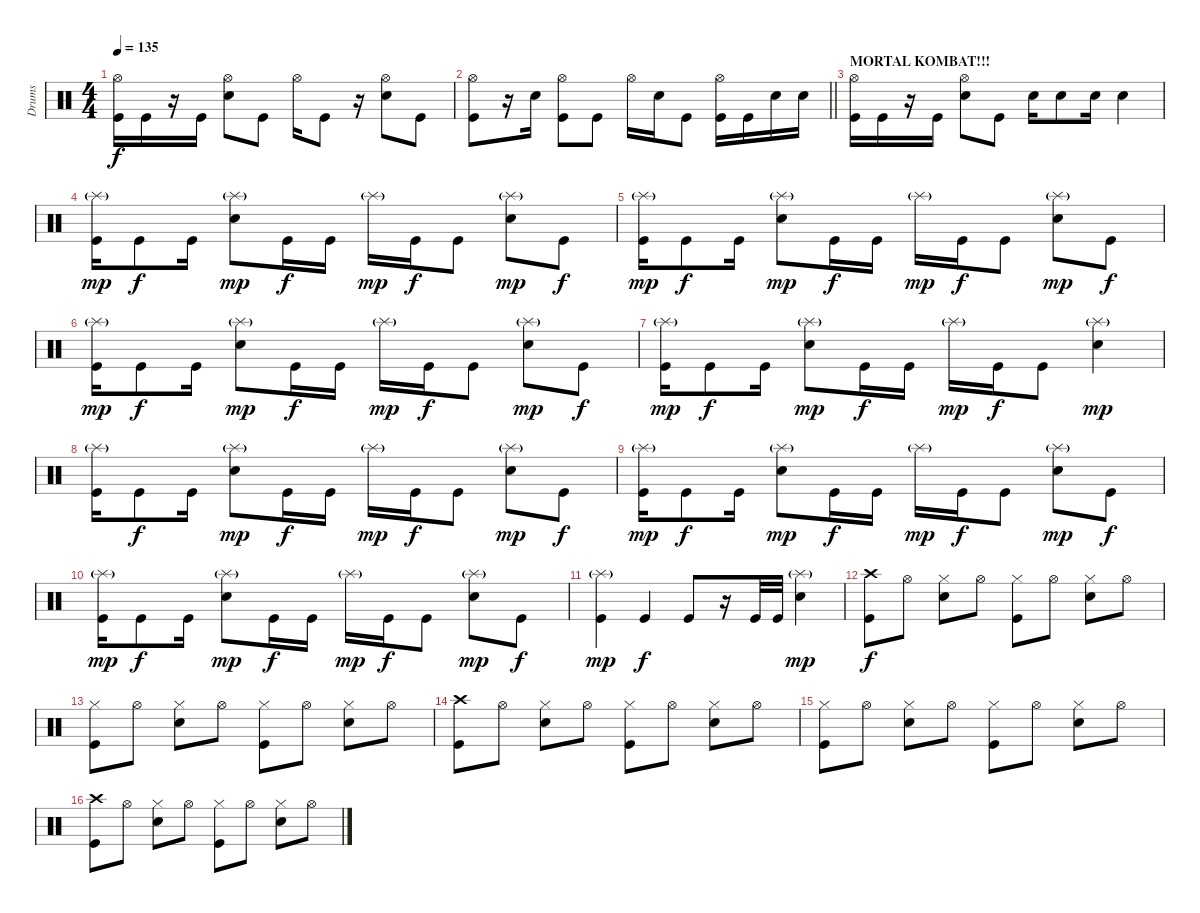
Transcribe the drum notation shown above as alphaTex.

\track ("Drums" "Drums") {instrument percussion}
\staff {score}
\articulation defaults
\ts (4 4)
\tempo 135
\clef neutral
\ks c
("Hi-Hat (open)" "Kick (hit)").16{dy f} "Kick (hit)".16 r.16 "Kick (hit)".16 ("Hi-Hat (open)" "Snare (hit) 2").8 "Kick (hit)".8 "Hi-Hat (open)".16 "Kick (hit)".8 r.16 ("Hi-Hat (open)" "Snare (hit) 2").8 "Kick (hit)".8 |
\barLineRight lightlight
("Hi-Hat (open)" "Kick (hit)").8 r.16 "Snare (hit) 2".16 ("Hi-Hat (open)" "Kick (hit)").8 "Kick (hit)".8 "Hi-Hat (open)".16 "Snare (hit) 2".16 "Kick (hit)".8 ("Hi-Hat (open)" "Kick (hit)").16 "Kick (hit)".16 "Snare (hit) 2".16 "Snare (hit) 2".16 |
\section ("" "MORTAL KOMBAT!!!")
("Hi-Hat (open)" "Kick (hit)").16 "Kick (hit)".16 r.16 "Kick (hit)".16 ("Hi-Hat (open)" "Snare (hit) 2").8 "Kick (hit)".8 "Snare (hit) 2".16 "Snare (hit) 2".8 "Snare (hit) 2".16 "Snare (hit) 2".4 |
("Splash (hit)"{g} "Kick (hit)").16{dy mp} "Kick (hit)".8{dy f} "Kick (hit)".16 ("Splash (hit)"{g} "Snare (hit) 2").8{dy mp} "Kick (hit)".16{dy f} "Kick (hit)".16 "Splash (hit)"{g}.16{dy mp} "Kick (hit)".16{dy f} "Kick (hit)".8 ("Splash (hit)"{g} "Snare (hit) 2").8{dy mp} "Kick (hit)".8{dy f} |
("Splash (hit)"{g} "Kick (hit)").16{dy mp} "Kick (hit)".8{dy f} "Kick (hit)".16 ("Splash (hit)"{g} "Snare (hit) 2").8{dy mp} "Kick (hit)".16{dy f} "Kick (hit)".16 "Splash (hit)"{g}.16{dy mp} "Kick (hit)".16{dy f} "Kick (hit)".8 ("Splash (hit)"{g} "Snare (hit) 2").8{dy mp} "Kick (hit)".8{dy f} |
("Splash (hit)"{g} "Kick (hit)").16{dy mp} "Kick (hit)".8{dy f} "Kick (hit)".16 ("Splash (hit)"{g} "Snare (hit) 2").8{dy mp} "Kick (hit)".16{dy f} "Kick (hit)".16 "Splash (hit)"{g}.16{dy mp} "Kick (hit)".16{dy f} "Kick (hit)".8 ("Splash (hit)"{g} "Snare (hit) 2").8{dy mp} "Kick (hit)".8{dy f} |
("Splash (hit)"{g} "Kick (hit)").16{dy mp} "Kick (hit)".8{dy f} "Kick (hit)".16 ("Splash (hit)"{g} "Snare (hit) 2").8{dy mp} "Kick (hit)".16{dy f} "Kick (hit)".16 "Splash (hit)"{g}.16{dy mp} "Kick (hit)".16{dy f} "Kick (hit)".8 ("Splash (hit)"{g} "Snare (hit) 2").4{dy mp} |
("Splash (hit)"{g} "Kick (hit)").16 "Kick (hit)".8{dy f} "Kick (hit)".16 ("Splash (hit)"{g} "Snare (hit) 2").8{dy mp} "Kick (hit)".16{dy f} "Kick (hit)".16 "Splash (hit)"{g}.16{dy mp} "Kick (hit)".16{dy f} "Kick (hit)".8 ("Splash (hit)"{g} "Snare (hit) 2").8{dy mp} "Kick (hit)".8{dy f} |
("Splash (hit)"{g} "Kick (hit)").16{dy mp} "Kick (hit)".8{dy f} "Kick (hit)".16 ("Splash (hit)"{g} "Snare (hit) 2").8{dy mp} "Kick (hit)".16{dy f} "Kick (hit)".16 "Splash (hit)"{g}.16{dy mp} "Kick (hit)".16{dy f} "Kick (hit)".8 ("Splash (hit)"{g} "Snare (hit) 2").8{dy mp} "Kick (hit)".8{dy f} |
("Splash (hit)"{g} "Kick (hit)").16{dy mp} "Kick (hit)".8{dy f} "Kick (hit)".16 ("Splash (hit)"{g} "Snare (hit) 2").8{dy mp} "Kick (hit)".16{dy f} "Kick (hit)".16 "Splash (hit)"{g}.16{dy mp} "Kick (hit)".16{dy f} "Kick (hit)".8 ("Splash (hit)"{g} "Snare (hit) 2").8{dy mp} "Kick (hit)".8{dy f} |
("Splash (hit)"{g} "Kick (hit)").4{dy mp} "Kick (hit)".4{dy f} "Kick (hit)".8 r.16 "Kick (hit)".32 "Kick (hit)".32 ("Splash (hit)"{g} "Snare (hit) 2").4{dy mp} |
("Crash high (hit)" "Kick (hit)").8{dy f} "Hi-Hat (open)".8 ("Hi-Hat (closed)" "Snare (hit) 2").8 "Hi-Hat (open)".8 ("Hi-Hat (closed)" "Kick (hit)").8 "Hi-Hat (open)".8 ("Hi-Hat (closed)" "Snare (hit) 2").8 "Hi-Hat (open)".8 |
("Hi-Hat (closed)" "Kick (hit)").8 "Hi-Hat (open)".8 ("Hi-Hat (closed)" "Snare (hit) 2").8 "Hi-Hat (open)".8 ("Hi-Hat (closed)" "Kick (hit)").8 "Hi-Hat (open)".8 ("Hi-Hat (closed)" "Snare (hit) 2").8 "Hi-Hat (open)".8 |
("Crash high (hit)" "Kick (hit)").8 "Hi-Hat (open)".8 ("Hi-Hat (closed)" "Snare (hit) 2").8 "Hi-Hat (open)".8 ("Hi-Hat (closed)" "Kick (hit)").8 "Hi-Hat (open)".8 ("Hi-Hat (closed)" "Snare (hit) 2").8 "Hi-Hat (open)".8 |
("Hi-Hat (closed)" "Kick (hit)").8 "Hi-Hat (open)".8 ("Hi-Hat (closed)" "Snare (hit) 2").8 "Hi-Hat (open)".8 ("Hi-Hat (closed)" "Kick (hit)").8 "Hi-Hat (open)".8 ("Hi-Hat (closed)" "Snare (hit) 2").8 "Hi-Hat (open)".8 |
("Crash high (hit)" "Kick (hit)").8 "Hi-Hat (open)".8 ("Hi-Hat (closed)" "Snare (hit) 2").8 "Hi-Hat (open)".8 ("Hi-Hat (closed)" "Kick (hit)").8 "Hi-Hat (open)".8 ("Hi-Hat (closed)" "Snare (hit) 2").8 "Hi-Hat (open)".8
